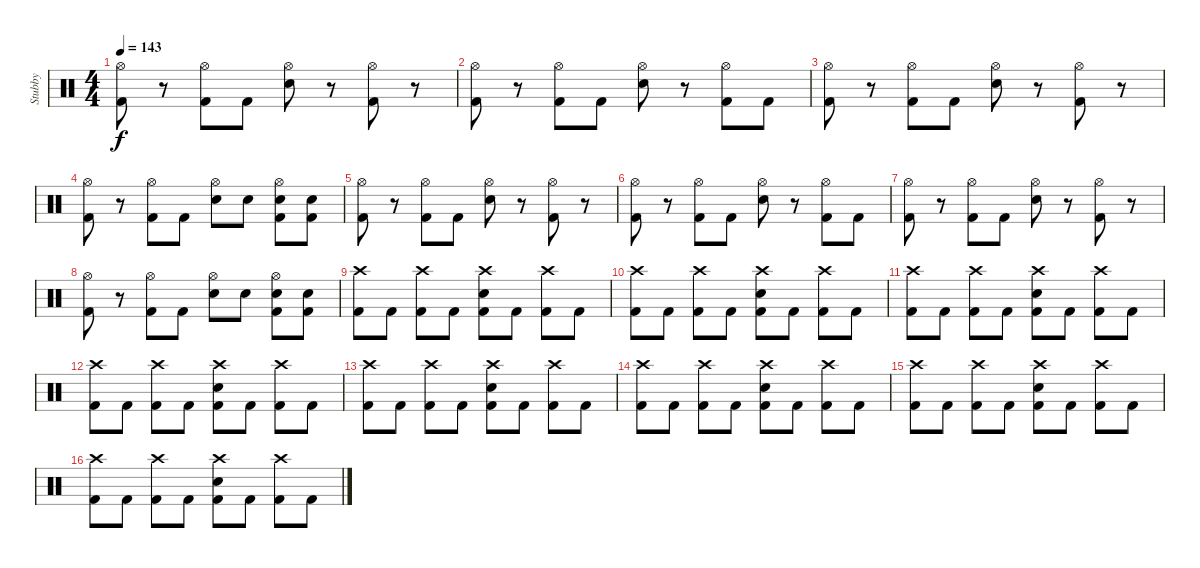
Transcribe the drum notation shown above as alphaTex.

\track ("Stubby" "Stubby") {instrument percussion}
\staff {score}
\articulation defaults
\ts (4 4)
\tempo 143
\clef neutral
\ks c
("Hi-Hat (open)" "Kick (hit) 2").8{dy f} r.8 ("Hi-Hat (open)" "Kick (hit) 2").8 "Kick (hit) 2".8 ("Hi-Hat (open)" "Electric Snare (hit)").8 r.8 ("Hi-Hat (open)" "Kick (hit) 2").8 r.8 |
("Hi-Hat (open)" "Kick (hit) 2").8 r.8 ("Hi-Hat (open)" "Kick (hit) 2").8 "Kick (hit) 2".8 ("Hi-Hat (open)" "Electric Snare (hit)").8 r.8 ("Hi-Hat (open)" "Kick (hit) 2").8 "Kick (hit) 2".8 |
("Hi-Hat (open)" "Kick (hit) 2").8 r.8 ("Hi-Hat (open)" "Kick (hit) 2").8 "Kick (hit) 2".8 ("Hi-Hat (open)" "Electric Snare (hit)").8 r.8 ("Hi-Hat (open)" "Kick (hit) 2").8 r.8 |
("Hi-Hat (open)" "Kick (hit) 2").8 r.8 ("Hi-Hat (open)" "Kick (hit) 2").8 "Kick (hit) 2".8 ("Hi-Hat (open)" "Electric Snare (hit)").8 "Electric Snare (hit)".8 ("Hi-Hat (open)" "Electric Snare (hit)" "Kick (hit) 2").8 ("Electric Snare (hit)" "Kick (hit) 2").8 |
("Hi-Hat (open)" "Kick (hit) 2").8 r.8 ("Hi-Hat (open)" "Kick (hit) 2").8 "Kick (hit) 2".8 ("Hi-Hat (open)" "Electric Snare (hit)").8 r.8 ("Hi-Hat (open)" "Kick (hit) 2").8 r.8 |
("Hi-Hat (open)" "Kick (hit) 2").8 r.8 ("Hi-Hat (open)" "Kick (hit) 2").8 "Kick (hit) 2".8 ("Hi-Hat (open)" "Electric Snare (hit)").8 r.8 ("Hi-Hat (open)" "Kick (hit) 2").8 "Kick (hit) 2".8 |
("Hi-Hat (open)" "Kick (hit) 2").8 r.8 ("Hi-Hat (open)" "Kick (hit) 2").8 "Kick (hit) 2".8 ("Hi-Hat (open)" "Electric Snare (hit)").8 r.8 ("Hi-Hat (open)" "Kick (hit) 2").8 r.8 |
("Hi-Hat (open)" "Kick (hit) 2").8 r.8 ("Hi-Hat (open)" "Kick (hit) 2").8 "Kick (hit) 2".8 ("Hi-Hat (open)" "Electric Snare (hit)").8 "Electric Snare (hit)".8 ("Hi-Hat (open)" "Electric Snare (hit)" "Kick (hit) 2").8 ("Electric Snare (hit)" "Kick (hit) 2").8 |
("Crash high (hit)" "Kick (hit) 2").8 "Kick (hit) 2".8 ("Crash high (hit)" "Kick (hit) 2").8 "Kick (hit) 2".8 ("Crash high (hit)" "Electric Snare (hit)" "Kick (hit) 2").8 "Kick (hit) 2".8 ("Crash high (hit)" "Kick (hit) 2").8 "Kick (hit) 2".8 |
("Crash high (hit)" "Kick (hit) 2").8 "Kick (hit) 2".8 ("Crash high (hit)" "Kick (hit) 2").8 "Kick (hit) 2".8 ("Crash high (hit)" "Electric Snare (hit)" "Kick (hit) 2").8 "Kick (hit) 2".8 ("Crash high (hit)" "Kick (hit) 2").8 "Kick (hit) 2".8 |
("Crash high (hit)" "Kick (hit) 2").8 "Kick (hit) 2".8 ("Crash high (hit)" "Kick (hit) 2").8 "Kick (hit) 2".8 ("Crash high (hit)" "Electric Snare (hit)" "Kick (hit) 2").8 "Kick (hit) 2".8 ("Crash high (hit)" "Kick (hit) 2").8 "Kick (hit) 2".8 |
("Crash high (hit)" "Kick (hit) 2").8 "Kick (hit) 2".8 ("Crash high (hit)" "Kick (hit) 2").8 "Kick (hit) 2".8 ("Crash high (hit)" "Electric Snare (hit)" "Kick (hit) 2").8 "Kick (hit) 2".8 ("Crash high (hit)" "Kick (hit) 2").8 "Kick (hit) 2".8 |
("Crash high (hit)" "Kick (hit) 2").8 "Kick (hit) 2".8 ("Crash high (hit)" "Kick (hit) 2").8 "Kick (hit) 2".8 ("Crash high (hit)" "Electric Snare (hit)" "Kick (hit) 2").8 "Kick (hit) 2".8 ("Crash high (hit)" "Kick (hit) 2").8 "Kick (hit) 2".8 |
("Crash high (hit)" "Kick (hit) 2").8 "Kick (hit) 2".8 ("Crash high (hit)" "Kick (hit) 2").8 "Kick (hit) 2".8 ("Crash high (hit)" "Electric Snare (hit)" "Kick (hit) 2").8 "Kick (hit) 2".8 ("Crash high (hit)" "Kick (hit) 2").8 "Kick (hit) 2".8 |
("Crash high (hit)" "Kick (hit) 2").8 "Kick (hit) 2".8 ("Crash high (hit)" "Kick (hit) 2").8 "Kick (hit) 2".8 ("Crash high (hit)" "Electric Snare (hit)" "Kick (hit) 2").8 "Kick (hit) 2".8 ("Crash high (hit)" "Kick (hit) 2").8 "Kick (hit) 2".8 |
("Crash high (hit)" "Kick (hit) 2").8 "Kick (hit) 2".8 ("Crash high (hit)" "Kick (hit) 2").8 "Kick (hit) 2".8 ("Crash high (hit)" "Electric Snare (hit)" "Kick (hit) 2").8 "Kick (hit) 2".8 ("Crash high (hit)" "Kick (hit) 2").8 "Kick (hit) 2".8
